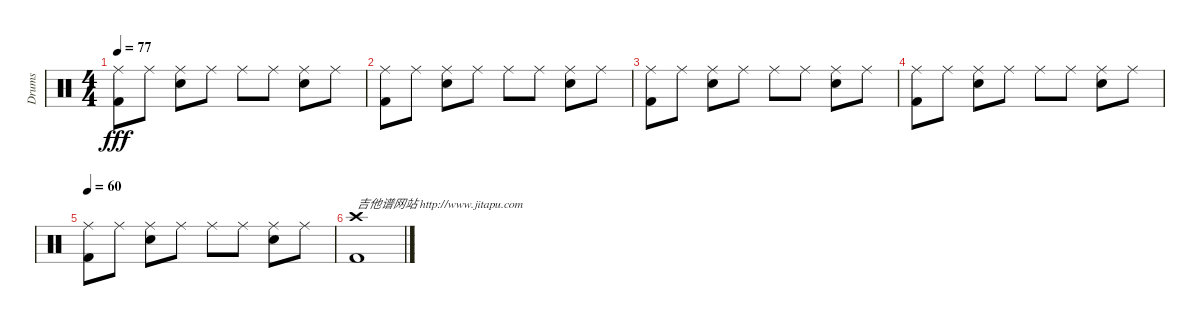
\track ("Drums" "Drums") {instrument percussion}
\staff {score}
\articulation defaults
\ts (4 4)
\tempo 77
\clef neutral
\ks c
("Ride (middle)" "Kick (hit) 2").8{dy fff} "Ride (middle)".8 ("Ride (middle)" "Snare (hit) 2").8 "Ride (middle)".8 "Ride (middle)".8 "Ride (middle)".8 ("Ride (middle)" "Snare (hit) 2").8 "Ride (middle)".8 |
("Ride (middle)" "Kick (hit) 2").8 "Ride (middle)".8 ("Ride (middle)" "Snare (hit) 2").8 "Ride (middle)".8 "Ride (middle)".8 "Ride (middle)".8 ("Ride (middle)" "Snare (hit) 2").8 "Ride (middle)".8 |
("Ride (middle)" "Kick (hit) 2").8 "Ride (middle)".8 ("Ride (middle)" "Snare (hit) 2").8 "Ride (middle)".8 "Ride (middle)".8 "Ride (middle)".8 ("Ride (middle)" "Snare (hit) 2").8 "Ride (middle)".8 |
("Ride (middle)" "Kick (hit) 2").8 "Ride (middle)".8 ("Ride (middle)" "Snare (hit) 2").8 "Ride (middle)".8 "Ride (middle)".8 "Ride (middle)".8 ("Ride (middle)" "Snare (hit) 2").8 "Ride (middle)".8 |
\tempo 60
("Ride (middle)" "Kick (hit) 2").8 "Ride (middle)".8 ("Ride (middle)" "Snare (hit) 2").8 "Ride (middle)".8 "Ride (middle)".8 "Ride (middle)".8 ("Ride (middle)" "Snare (hit) 2").8 "Ride (middle)".8 |
("Crash high (hit)" "Kick (hit) 2").1{txt "吉他谱网站 http://www.jitapu.com"}
